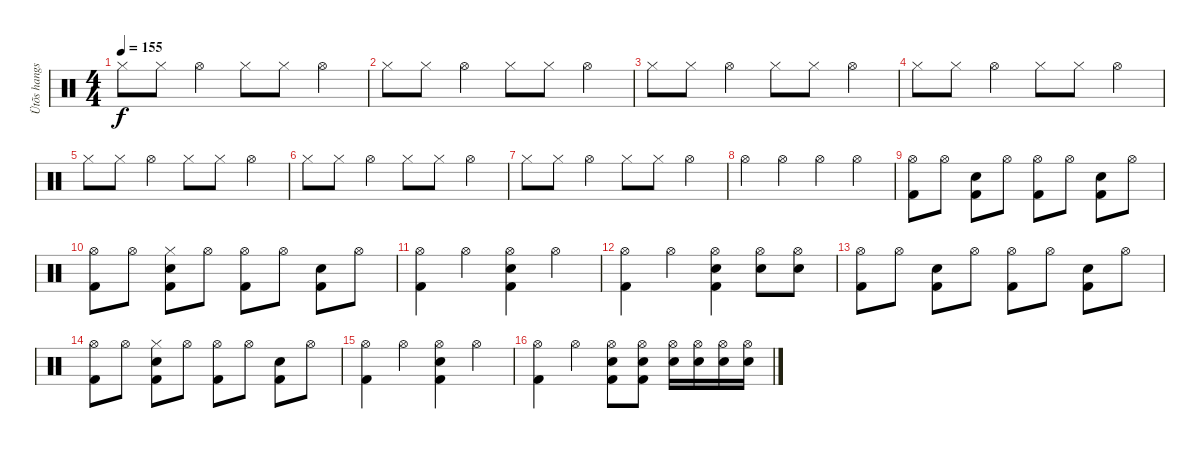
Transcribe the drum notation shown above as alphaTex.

\track ("Ütõs hangszer" "Ütõs hangs") {instrument percussion}
\staff {score}
\articulation defaults
\ts (4 4)
\tempo 155
\clef neutral
\ks c "Hi-Hat (closed)".8{dy f} "Hi-Hat (closed)".8 "Hi-Hat (open)".4 "Hi-Hat (closed)".8 "Hi-Hat (closed)".8 "Hi-Hat (open)".4
|
"Hi-Hat (closed)".8 "Hi-Hat (closed)".8 "Hi-Hat (open)".4 "Hi-Hat (closed)".8 "Hi-Hat (closed)".8 "Hi-Hat (open)".4 |
"Hi-Hat (closed)".8 "Hi-Hat (closed)".8 "Hi-Hat (open)".4 "Hi-Hat (closed)".8 "Hi-Hat (closed)".8 "Hi-Hat (open)".4 |
"Hi-Hat (closed)".8 "Hi-Hat (closed)".8 "Hi-Hat (open)".4 "Hi-Hat (closed)".8 "Hi-Hat (closed)".8 "Hi-Hat (open)".4 |
"Hi-Hat (closed)".8 "Hi-Hat (closed)".8 "Hi-Hat (open)".4 "Hi-Hat (closed)".8 "Hi-Hat (closed)".8 "Hi-Hat (open)".4 |
"Hi-Hat (closed)".8 "Hi-Hat (closed)".8 "Hi-Hat (open)".4 "Hi-Hat (closed)".8 "Hi-Hat (closed)".8 "Hi-Hat (open)".4 |
"Hi-Hat (closed)".8 "Hi-Hat (closed)".8 "Hi-Hat (open)".4 "Hi-Hat (closed)".8 "Hi-Hat (closed)".8 "Hi-Hat (open)".4 |
"Hi-Hat (open)".4 "Hi-Hat (open)".4 "Hi-Hat (open)".4 "Hi-Hat (open)".4 |
("Hi-Hat (open)" "Kick (hit) 2").8 "Hi-Hat (open)".8 ("Electric Snare (hit)" "Kick (hit) 2").8 "Hi-Hat (open)".8 ("Hi-Hat (open)" "Kick (hit) 2").8 "Hi-Hat (open)".8 ("Electric Snare (hit)" "Kick (hit) 2").8 "Hi-Hat (open)".8 |
("Hi-Hat (open)" "Kick (hit) 2").8 "Hi-Hat (open)".8 ("Electric Snare (hit)" "Hi-Hat (closed)" "Kick (hit) 2").8 "Hi-Hat (open)".8 ("Hi-Hat (open)" "Kick (hit) 2").8 "Hi-Hat (open)".8 ("Electric Snare (hit)" "Kick (hit) 2").8 "Hi-Hat (open)".8 |
("Hi-Hat (open)" "Kick (hit) 2").4 "Hi-Hat (open)".4 ("Hi-Hat (open)" "Snare (hit) 2" "Kick (hit) 2").4 "Hi-Hat (open)".4 |
("Hi-Hat (open)" "Kick (hit) 2").4 "Hi-Hat (open)".4 ("Hi-Hat (open)" "Snare (hit) 2" "Kick (hit) 2").4 ("Hi-Hat (open)" "Snare (hit) 2").8 ("Hi-Hat (open)" "Snare (hit) 2").8 |
("Hi-Hat (open)" "Kick (hit) 2").8 "Hi-Hat (open)".8 ("Electric Snare (hit)" "Kick (hit) 2").8 "Hi-Hat (open)".8 ("Hi-Hat (open)" "Kick (hit) 2").8 "Hi-Hat (open)".8 ("Electric Snare (hit)" "Kick (hit) 2").8 "Hi-Hat (open)".8 |
("Hi-Hat (open)" "Kick (hit) 2").8 "Hi-Hat (open)".8 ("Electric Snare (hit)" "Hi-Hat (closed)" "Kick (hit) 2").8 "Hi-Hat (open)".8 ("Hi-Hat (open)" "Kick (hit) 2").8 "Hi-Hat (open)".8 ("Electric Snare (hit)" "Kick (hit) 2").8 "Hi-Hat (open)".8 |
("Hi-Hat (open)" "Kick (hit) 2").4 "Hi-Hat (open)".4 ("Hi-Hat (open)" "Snare (hit) 2" "Kick (hit) 2").4 "Hi-Hat (open)".4 |
("Hi-Hat (open)" "Kick (hit) 2").4 "Hi-Hat (open)".4 ("Hi-Hat (open)" "Snare (hit) 2" "Kick (hit) 2").8 ("Hi-Hat (open)" "Snare (hit) 2" "Kick (hit) 2").8 ("Hi-Hat (open)" "Snare (hit) 2").16 ("Hi-Hat (open)" "Snare (hit) 2").16 ("Hi-Hat (open)" "Snare (hit) 2").16 ("Hi-Hat (open)" "Snare (hit) 2").16
